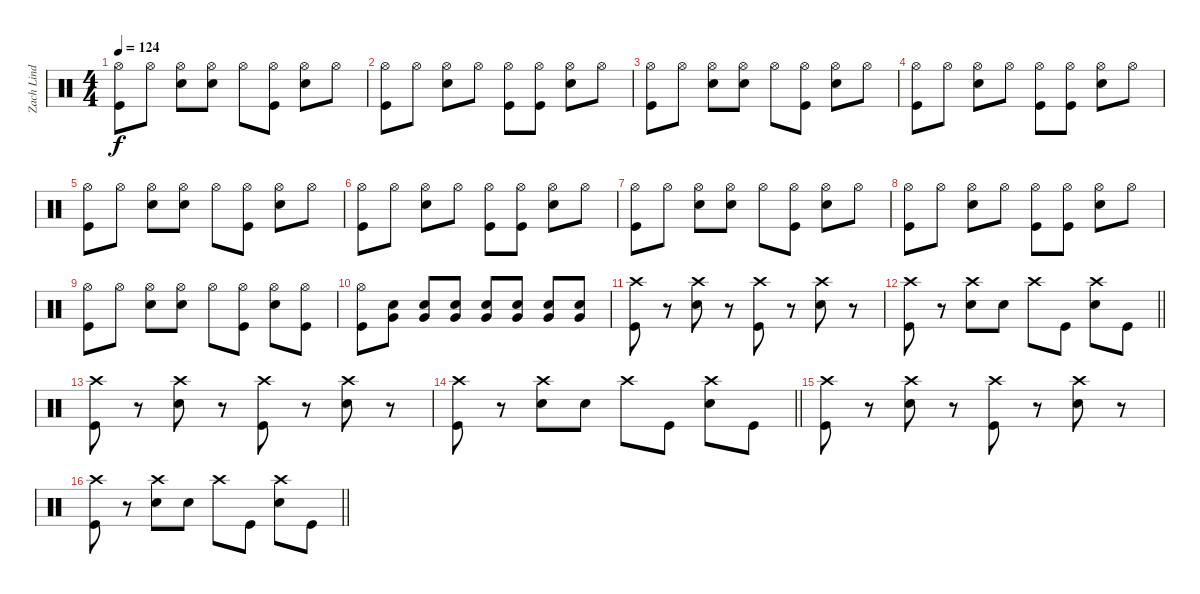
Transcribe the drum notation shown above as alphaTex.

\track ("Zach Lind - Drums" "Zach Lind ") {instrument percussion}
\staff {score}
\articulation defaults
\ts (4 4)
\tempo 124
\clef neutral
\ks c
("Kick (hit)" "Hi-Hat (open)").8{dy f} "Hi-Hat (open)".8 ("Snare (hit) 2" "Hi-Hat (open)").8 ("Snare (hit) 2" "Hi-Hat (open)").8 "Hi-Hat (open)".8 ("Kick (hit)" "Hi-Hat (open)").8 ("Snare (hit) 2" "Hi-Hat (open)").8 "Hi-Hat (open)".8 |
("Kick (hit)" "Hi-Hat (open)").8 "Hi-Hat (open)".8 ("Snare (hit) 2" "Hi-Hat (open)").8 "Hi-Hat (open)".8 ("Kick (hit)" "Hi-Hat (open)").8 ("Kick (hit)" "Hi-Hat (open)").8 ("Snare (hit) 2" "Hi-Hat (open)").8 "Hi-Hat (open)".8 |
("Kick (hit)" "Hi-Hat (open)").8 "Hi-Hat (open)".8 ("Snare (hit) 2" "Hi-Hat (open)").8 ("Snare (hit) 2" "Hi-Hat (open)").8 "Hi-Hat (open)".8 ("Kick (hit)" "Hi-Hat (open)").8 ("Snare (hit) 2" "Hi-Hat (open)").8 "Hi-Hat (open)".8 |
("Kick (hit)" "Hi-Hat (open)").8 "Hi-Hat (open)".8 ("Snare (hit) 2" "Hi-Hat (open)").8 "Hi-Hat (open)".8 ("Kick (hit)" "Hi-Hat (open)").8 ("Kick (hit)" "Hi-Hat (open)").8 ("Snare (hit) 2" "Hi-Hat (open)").8 "Hi-Hat (open)".8 |
("Kick (hit)" "Hi-Hat (open)").8 "Hi-Hat (open)".8 ("Snare (hit) 2" "Hi-Hat (open)").8 ("Snare (hit) 2" "Hi-Hat (open)").8 "Hi-Hat (open)".8 ("Kick (hit)" "Hi-Hat (open)").8 ("Snare (hit) 2" "Hi-Hat (open)").8 "Hi-Hat (open)".8 |
("Kick (hit)" "Hi-Hat (open)").8 "Hi-Hat (open)".8 ("Snare (hit) 2" "Hi-Hat (open)").8 "Hi-Hat (open)".8 ("Kick (hit)" "Hi-Hat (open)").8 ("Kick (hit)" "Hi-Hat (open)").8 ("Snare (hit) 2" "Hi-Hat (open)").8 "Hi-Hat (open)".8 |
("Kick (hit)" "Hi-Hat (open)").8 "Hi-Hat (open)".8 ("Snare (hit) 2" "Hi-Hat (open)").8 ("Snare (hit) 2" "Hi-Hat (open)").8 "Hi-Hat (open)".8 ("Kick (hit)" "Hi-Hat (open)").8 ("Snare (hit) 2" "Hi-Hat (open)").8 "Hi-Hat (open)".8 |
("Kick (hit)" "Hi-Hat (open)").8 "Hi-Hat (open)".8 ("Snare (hit) 2" "Hi-Hat (open)").8 "Hi-Hat (open)".8 ("Kick (hit)" "Hi-Hat (open)").8 ("Kick (hit)" "Hi-Hat (open)").8 ("Snare (hit) 2" "Hi-Hat (open)").8 "Hi-Hat (open)".8 |
("Kick (hit)" "Hi-Hat (open)").8 "Hi-Hat (open)".8 ("Snare (hit) 2" "Hi-Hat (open)").8 ("Snare (hit) 2" "Hi-Hat (open)").8 "Hi-Hat (open)".8 ("Kick (hit)" "Hi-Hat (open)").8 ("Snare (hit) 2" "Hi-Hat (open)").8 ("Kick (hit)" "Hi-Hat (open)").8 |
("Kick (hit)" "Hi-Hat (open)").8 ("Snare (hit) 2" "Very Low Tom (hit)").8 ("Snare (hit) 2" "Very Low Tom (hit)").8 ("Snare (hit) 2" "Very Low Tom (hit)").8 ("Snare (hit) 2" "Very Low Tom (hit)").8 ("Snare (hit) 2" "Very Low Tom (hit)").8 ("Snare (hit) 2" "Very Low Tom (hit)").8 ("Snare (hit) 2" "Very Low Tom (hit)").8 |
("Kick (hit)" "Crash high (hit)").8 r.8 ("Snare (hit) 2" "Crash high (hit)").8 r.8 ("Kick (hit)" "Crash high (hit)").8 r.8 ("Snare (hit) 2" "Crash high (hit)").8 r.8 |
\barLineRight lightlight
("Kick (hit)" "Crash high (hit)").8 r.8 ("Snare (hit) 2" "Crash high (hit)").8 "Snare (hit) 2".8 "Crash high (hit)".8 "Kick (hit)".8 ("Snare (hit) 2" "Crash high (hit)").8 "Kick (hit)".8 |
("Kick (hit)" "Crash high (hit)").8 r.8 ("Snare (hit) 2" "Crash high (hit)").8 r.8 ("Kick (hit)" "Crash high (hit)").8 r.8 ("Snare (hit) 2" "Crash high (hit)").8 r.8 |
\barLineRight lightlight
("Kick (hit)" "Crash high (hit)").8 r.8 ("Snare (hit) 2" "Crash high (hit)").8 "Snare (hit) 2".8 "Crash high (hit)".8 "Kick (hit)".8 ("Snare (hit) 2" "Crash high (hit)").8 "Kick (hit)".8 |
("Kick (hit)" "Crash high (hit)").8 r.8 ("Snare (hit) 2" "Crash high (hit)").8 r.8 ("Kick (hit)" "Crash high (hit)").8 r.8 ("Snare (hit) 2" "Crash high (hit)").8 r.8 |
\barLineRight lightlight
("Kick (hit)" "Crash high (hit)").8 r.8 ("Snare (hit) 2" "Crash high (hit)").8 "Snare (hit) 2".8 "Crash high (hit)".8 "Kick (hit)".8 ("Snare (hit) 2" "Crash high (hit)").8 "Kick (hit)".8
